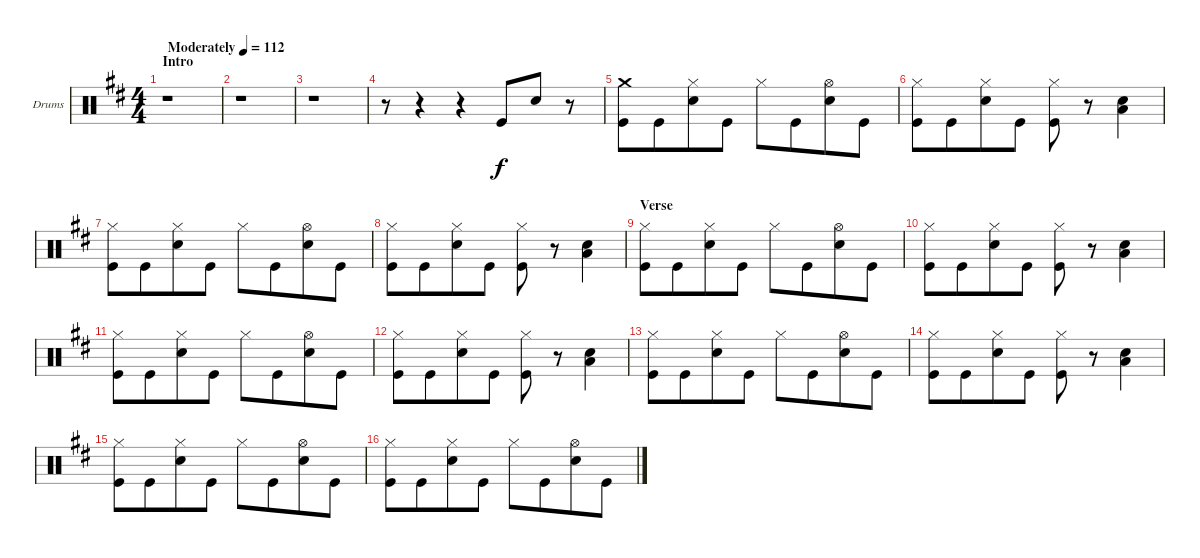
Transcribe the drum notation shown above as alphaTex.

\defaultSystemsLayout 4
\bracketExtendMode groupsimilarinstruments
\firstSystemTrackNameOrientation horizontal
\otherSystemsTrackNameOrientation horizontal
\track ("Drumkit" "Drums") {instrument percussion}
\staff {score}
\articulation defaults
\ts (4 4)
\beaming (8 4 4)
\section ("" "Intro")
\tempo (112 "Moderately")
\clef neutral
\scale
1.08071
\ks d
r.1{dy f} |
\scale
0.919294 r.1 |
\scale
1.05044 r.1 |
\scale
0.949559 r.8 r.4 r.4 "Kick (hit)".8 "Snare (hit) 2".8 r.8 |
\scale
1.05044 ("Crash medium (hit)" "Kick (hit)").8 "Kick (hit)".8 ("Hi-Hat (closed)" "Snare (hit) 2").8 "Kick (hit)".8 "Hi-Hat (closed)".8 "Kick (hit)".8 ("Hi-Hat (open)" "Snare (hit) 2").8 "Kick (hit)".8 |
\scale
0.949559 ("Hi-Hat (closed)" "Kick (hit)").8 "Kick (hit)".8 ("Hi-Hat (closed)" "Snare (hit) 2").8 "Kick (hit)".8 ("Hi-Hat (closed)" "Kick (hit)").8 r.8 ("Snare (hit) 2" "Low Tom (hit)").4 |
\scale
1.05044 ("Hi-Hat (closed)" "Kick (hit)").8 "Kick (hit)".8 ("Hi-Hat (closed)" "Snare (hit) 2").8 "Kick (hit)".8 "Hi-Hat (closed)".8 "Kick (hit)".8 ("Hi-Hat (open)" "Snare (hit) 2").8 "Kick (hit)".8 |
\scale
0.949559 ("Hi-Hat (closed)" "Kick (hit)").8 "Kick (hit)".8 ("Hi-Hat (closed)" "Snare (hit) 2").8 "Kick (hit)".8 ("Hi-Hat (closed)" "Kick (hit)").8 r.8 ("Snare (hit) 2" "Low Tom (hit)").4 |
\section ("" "Verse")
\scale
1.05044 ("Hi-Hat (closed)" "Kick (hit)").8 "Kick (hit)".8 ("Hi-Hat (closed)" "Snare (hit) 2").8 "Kick (hit)".8 "Hi-Hat (closed)".8 "Kick (hit)".8 ("Hi-Hat (open)" "Snare (hit) 2").8 "Kick (hit)".8 |
\scale
0.949559 ("Hi-Hat (closed)" "Kick (hit)").8 "Kick (hit)".8 ("Hi-Hat (closed)" "Snare (hit) 2").8 "Kick (hit)".8 ("Hi-Hat (closed)" "Kick (hit)").8 r.8 ("Snare (hit) 2" "Low Tom (hit)").4 |
\scale
1.05044 ("Hi-Hat (closed)" "Kick (hit)").8 "Kick (hit)".8 ("Hi-Hat (closed)" "Snare (hit) 2").8 "Kick (hit)".8 "Hi-Hat (closed)".8 "Kick (hit)".8 ("Hi-Hat (open)" "Snare (hit) 2").8 "Kick (hit)".8 |
\scale
0.949559 ("Hi-Hat (closed)" "Kick (hit)").8 "Kick (hit)".8 ("Hi-Hat (closed)" "Snare (hit) 2").8 "Kick (hit)".8 ("Hi-Hat (closed)" "Kick (hit)").8 r.8 ("Snare (hit) 2" "Low Tom (hit)").4 |
\scale
1.05044 ("Hi-Hat (closed)" "Kick (hit)").8 "Kick (hit)".8 ("Hi-Hat (closed)" "Snare (hit) 2").8 "Kick (hit)".8 "Hi-Hat (closed)".8 "Kick (hit)".8 ("Hi-Hat (open)" "Snare (hit) 2").8 "Kick (hit)".8 |
\scale
0.949559 ("Hi-Hat (closed)" "Kick (hit)").8 "Kick (hit)".8 ("Hi-Hat (closed)" "Snare (hit) 2").8 "Kick (hit)".8 ("Hi-Hat (closed)" "Kick (hit)").8 r.8 ("Snare (hit) 2" "Low Tom (hit)").4 |
\scale
1.05044 ("Hi-Hat (closed)" "Kick (hit)").8 "Kick (hit)".8 ("Hi-Hat (closed)" "Snare (hit) 2").8 "Kick (hit)".8 "Hi-Hat (closed)".8 "Kick (hit)".8 ("Hi-Hat (open)" "Snare (hit) 2").8 "Kick (hit)".8 |
\scale
0.949559 ("Hi-Hat (closed)" "Kick (hit)").8 "Kick (hit)".8 ("Hi-Hat (closed)" "Snare (hit) 2").8 "Kick (hit)".8 "Hi-Hat (closed)".8 "Kick (hit)".8 ("Hi-Hat (open)" "Snare (hit) 2").8 "Kick (hit)".8
